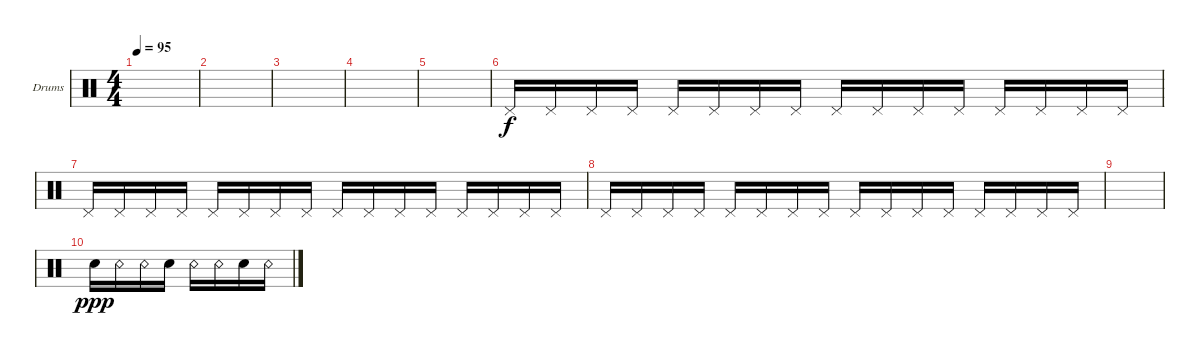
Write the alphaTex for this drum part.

\defaultSystemsLayout 4
\bracketExtendMode groupsimilarinstruments
\firstSystemTrackNameOrientation horizontal
\otherSystemsTrackNameOrientation horizontal
\track ("Drumkit" "Drums") {instrument percussion}
\staff {score}
\articulation defaults
\ts (4 4)
\tempo 95
\clef neutral
\ks c
|
|
|
|
|
"Pedal Hi-Hat (hit)".16 "Pedal Hi-Hat (hit)".16 "Pedal Hi-Hat (hit)".16 "Pedal Hi-Hat (hit)".16 "Pedal Hi-Hat (hit)".16 "Pedal Hi-Hat (hit)".16 "Pedal Hi-Hat (hit)".16 "Pedal Hi-Hat (hit)".16 "Pedal Hi-Hat (hit)".16 "Pedal Hi-Hat (hit)".16 "Pedal Hi-Hat (hit)".16 "Pedal Hi-Hat (hit)".16 "Pedal Hi-Hat (hit)".16 "Pedal Hi-Hat (hit)".16 "Pedal Hi-Hat (hit)".16 "Pedal Hi-Hat (hit)".16 |
"Pedal Hi-Hat (hit)".16 "Pedal Hi-Hat (hit)".16 "Pedal Hi-Hat (hit)".16 "Pedal Hi-Hat (hit)".16 "Pedal Hi-Hat (hit)".16 "Pedal Hi-Hat (hit)".16 "Pedal Hi-Hat (hit)".16 "Pedal Hi-Hat (hit)".16 "Pedal Hi-Hat (hit)".16 "Pedal Hi-Hat (hit)".16 "Pedal Hi-Hat (hit)".16 "Pedal Hi-Hat (hit)".16 "Pedal Hi-Hat (hit)".16 "Pedal Hi-Hat (hit)".16 "Pedal Hi-Hat (hit)".16 "Pedal Hi-Hat (hit)".16 |
"Pedal Hi-Hat (hit)".16 "Pedal Hi-Hat (hit)".16 "Pedal Hi-Hat (hit)".16 "Pedal Hi-Hat (hit)".16 "Pedal Hi-Hat (hit)".16 "Pedal Hi-Hat (hit)".16 "Pedal Hi-Hat (hit)".16 "Pedal Hi-Hat (hit)".16 "Pedal Hi-Hat (hit)".16 "Pedal Hi-Hat (hit)".16 "Pedal Hi-Hat (hit)".16 "Pedal Hi-Hat (hit)".16 "Pedal Hi-Hat (hit)".16 "Pedal Hi-Hat (hit)".16 "Pedal Hi-Hat (hit)".16 "Pedal Hi-Hat (hit)".16 |
|
"Snare (hit) 2".16{dy ppp} "Snare (rim shot)".16 "Snare (rim shot)".16 "Snare (hit) 2".16 "Snare (rim shot)".16 "Snare (rim shot)".16 "Snare (hit) 2".16 "Snare (rim shot)".16
